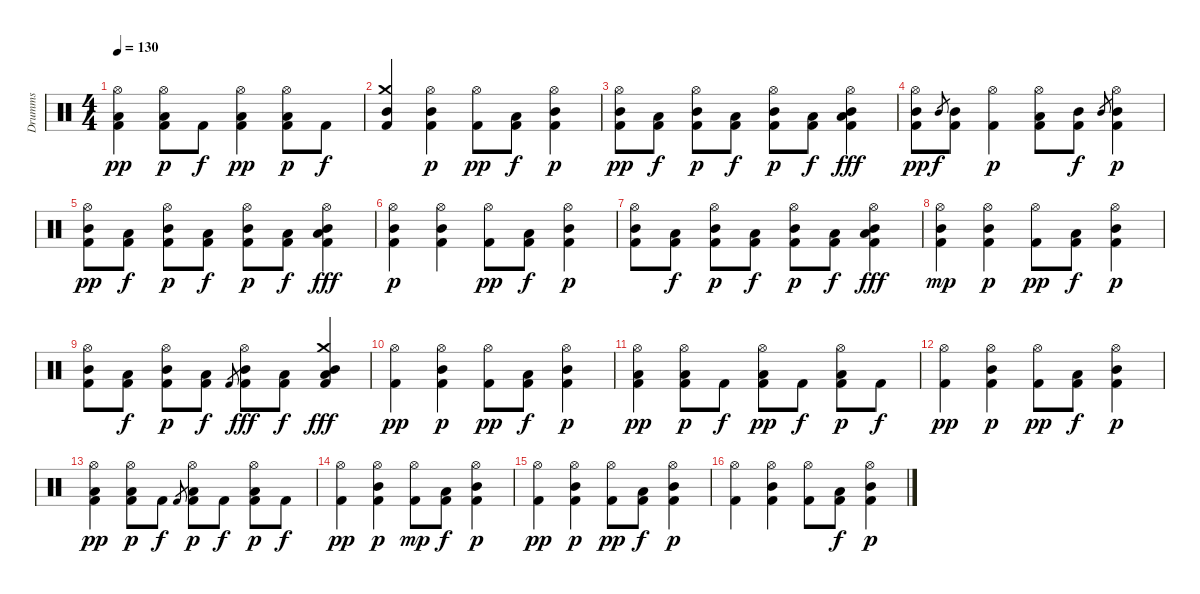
\track ("Drumms" "Drumms") {instrument percussion}
\staff {score}
\articulation defaults
\ts (4 4)
\tempo 130
\clef neutral
\ks c
("Hi-Hat (open)" "Kick (hit) 2" "Low Tom (hit)").4{dy pp} ("Hi-Hat (open)" "Kick (hit) 2" "Low Tom (hit)").8{dy p} "Kick (hit) 2".8{dy f} ("Hi-Hat (open)" "Kick (hit) 2" "Low Tom (hit)").4{dy pp} ("Hi-Hat (open)" "Kick (hit) 2" "Low Tom (hit)").8{dy p} "Kick (hit) 2".8{dy f} |
("Crash medium (hit)" "Kick (hit) 2" "Mid Tom (hit)").4 ("Hi-Hat (open)" "Kick (hit) 2" "Mid Tom (hit)").4{dy p} ("Hi-Hat (open)" "Kick (hit) 2").8{dy pp} ("Kick (hit) 2" "Low Tom (hit)").8{dy f} ("Hi-Hat (open)" "Kick (hit) 2" "Mid Tom (hit)").4{dy p} |
("Hi-Hat (open)" "Kick (hit) 2" "Mid Tom (hit)").8{dy pp} ("Kick (hit) 2" "Low Tom (hit)").8{dy f} ("Hi-Hat (open)" "Kick (hit) 2" "Mid Tom (hit)").8{dy p} ("Kick (hit) 2" "Low Tom (hit)").8{dy f} ("Hi-Hat (open)" "Kick (hit) 2" "Mid Tom (hit)").8{dy p} ("Kick (hit) 2" "Low Tom (hit)").8{dy f} ("Hi-Hat (open)" "Kick (hit) 2" "Mid Tom (hit)" "Low Tom (hit)").4{dy fff} |
("Hi-Hat (open)" "Kick (hit) 2" "Mid Tom (hit)").8{dy pp} "Mid Tom (hit)".8{gr dy f} ("Kick (hit) 2" "Mid Tom (hit)").8 ("Hi-Hat (open)" "Kick (hit) 2").4{dy p} ("Hi-Hat (open)" "Kick (hit) 2" "Low Tom (hit)").8 ("Kick (hit) 2" "Mid Tom (hit)").8{dy f} "Mid Tom (hit)".8{gr} ("Hi-Hat (open)" "Kick (hit) 2" "Mid Tom (hit)").4{dy p} |
("Hi-Hat (open)" "Kick (hit) 2" "Mid Tom (hit)").8{dy pp} ("Kick (hit) 2" "Low Tom (hit)").8{dy f} ("Hi-Hat (open)" "Kick (hit) 2" "Mid Tom (hit)").8{dy p} ("Kick (hit) 2" "Low Tom (hit)").8{dy f} ("Hi-Hat (open)" "Kick (hit) 2" "Mid Tom (hit)").8{dy p} ("Kick (hit) 2" "Low Tom (hit)").8{dy f} ("Hi-Hat (open)" "Kick (hit) 2" "Mid Tom (hit)" "Low Tom (hit)").4{dy fff} |
("Hi-Hat (open)" "Kick (hit) 2" "Mid Tom (hit)").4{dy p} ("Hi-Hat (open)" "Kick (hit) 2" "Mid Tom (hit)").4 ("Hi-Hat (open)" "Kick (hit) 2").8{dy pp} ("Kick (hit) 2" "Low Tom (hit)").8{dy f} ("Hi-Hat (open)" "Kick (hit) 2" "Mid Tom (hit)").4{dy p} |
("Hi-Hat (open)" "Kick (hit) 2" "Mid Tom (hit)").8 ("Kick (hit) 2" "Low Tom (hit)").8{dy f} ("Hi-Hat (open)" "Kick (hit) 2" "Mid Tom (hit)").8{dy p} ("Kick (hit) 2" "Low Tom (hit)").8{dy f} ("Hi-Hat (open)" "Kick (hit) 2" "Mid Tom (hit)").8{dy p} ("Kick (hit) 2" "Low Tom (hit)").8{dy f} ("Hi-Hat (open)" "Kick (hit) 2" "Mid Tom (hit)" "Low Tom (hit)").4{dy fff} |
("Hi-Hat (open)" "Kick (hit) 2" "Mid Tom (hit)").4{dy mp} ("Hi-Hat (open)" "Kick (hit) 2" "Mid Tom (hit)").4{dy p} ("Hi-Hat (open)" "Kick (hit) 2").8{dy pp} ("Kick (hit) 2" "Low Tom (hit)").8{dy f} ("Hi-Hat (open)" "Kick (hit) 2" "Mid Tom (hit)").4{dy p} |
("Hi-Hat (open)" "Kick (hit) 2" "Mid Tom (hit)").8 ("Kick (hit) 2" "Low Tom (hit)").8{dy f} ("Hi-Hat (open)" "Kick (hit) 2" "Mid Tom (hit)").8{dy p} ("Kick (hit) 2" "Low Tom (hit)").8{dy f} "Kick (hit) 2".8{gr} ("Hi-Hat (open)" "Kick (hit) 2" "Mid Tom (hit)").8{dy fff} ("Kick (hit) 2" "Low Tom (hit)").8{dy f} ("Crash medium (hit)" "Kick (hit) 2" "Mid Tom (hit)" "Low Tom (hit)").4{dy fff} |
("Hi-Hat (open)" "Kick (hit) 2").4{dy pp} ("Hi-Hat (open)" "Kick (hit) 2" "Mid Tom (hit)").4{dy p} ("Hi-Hat (open)" "Kick (hit) 2").8{dy pp} ("Kick (hit) 2" "Low Tom (hit)").8{dy f} ("Hi-Hat (open)" "Kick (hit) 2" "Mid Tom (hit)").4{dy p} |
("Hi-Hat (open)" "Kick (hit) 2" "Low Tom (hit)").4{dy pp} ("Hi-Hat (open)" "Kick (hit) 2" "Low Tom (hit)").8{dy p} "Kick (hit) 2".8{dy f} ("Hi-Hat (open)" "Kick (hit) 2" "Low Tom (hit)").8{dy pp} "Kick (hit) 2".8{dy f} ("Hi-Hat (open)" "Kick (hit) 2" "Low Tom (hit)").8{dy p} "Kick (hit) 2".8{dy f} |
("Hi-Hat (open)" "Kick (hit) 2").4{dy pp} ("Hi-Hat (open)" "Kick (hit) 2" "Mid Tom (hit)").4{dy p} ("Hi-Hat (open)" "Kick (hit) 2").8{dy pp} ("Kick (hit) 2" "Low Tom (hit)").8{dy f} ("Hi-Hat (open)" "Kick (hit) 2" "Mid Tom (hit)").4{dy p} |
("Hi-Hat (open)" "Kick (hit) 2" "Low Tom (hit)").4{dy pp} ("Hi-Hat (open)" "Kick (hit) 2" "Low Tom (hit)").8{dy p} "Kick (hit) 2".8{dy f} "Kick (hit) 2".8{gr} ("Hi-Hat (open)" "Kick (hit) 2" "Low Tom (hit)").8{dy p} "Kick (hit) 2".8{dy f} ("Hi-Hat (open)" "Kick (hit) 2" "Low Tom (hit)").8{dy p} "Kick (hit) 2".8{dy f} |
("Hi-Hat (open)" "Kick (hit) 2").4{dy pp} ("Hi-Hat (open)" "Kick (hit) 2" "Mid Tom (hit)").4{dy p} ("Hi-Hat (open)" "Kick (hit) 2").8{dy mp} ("Kick (hit) 2" "Low Tom (hit)").8{dy f} ("Hi-Hat (open)" "Kick (hit) 2" "Mid Tom (hit)").4{dy p} |
("Hi-Hat (open)" "Kick (hit) 2").4{dy pp} ("Hi-Hat (open)" "Kick (hit) 2" "Mid Tom (hit)").4{dy p} ("Hi-Hat (open)" "Kick (hit) 2").8{dy pp} ("Kick (hit) 2" "Low Tom (hit)").8{dy f} ("Hi-Hat (open)" "Kick (hit) 2" "Mid Tom (hit)").4{dy p} |
("Hi-Hat (open)" "Kick (hit) 2").4 ("Hi-Hat (open)" "Kick (hit) 2" "Mid Tom (hit)").4 ("Hi-Hat (open)" "Kick (hit) 2").8 ("Kick (hit) 2" "Low Tom (hit)").8{dy f} ("Hi-Hat (open)" "Kick (hit) 2" "Mid Tom (hit)").4{dy p}
